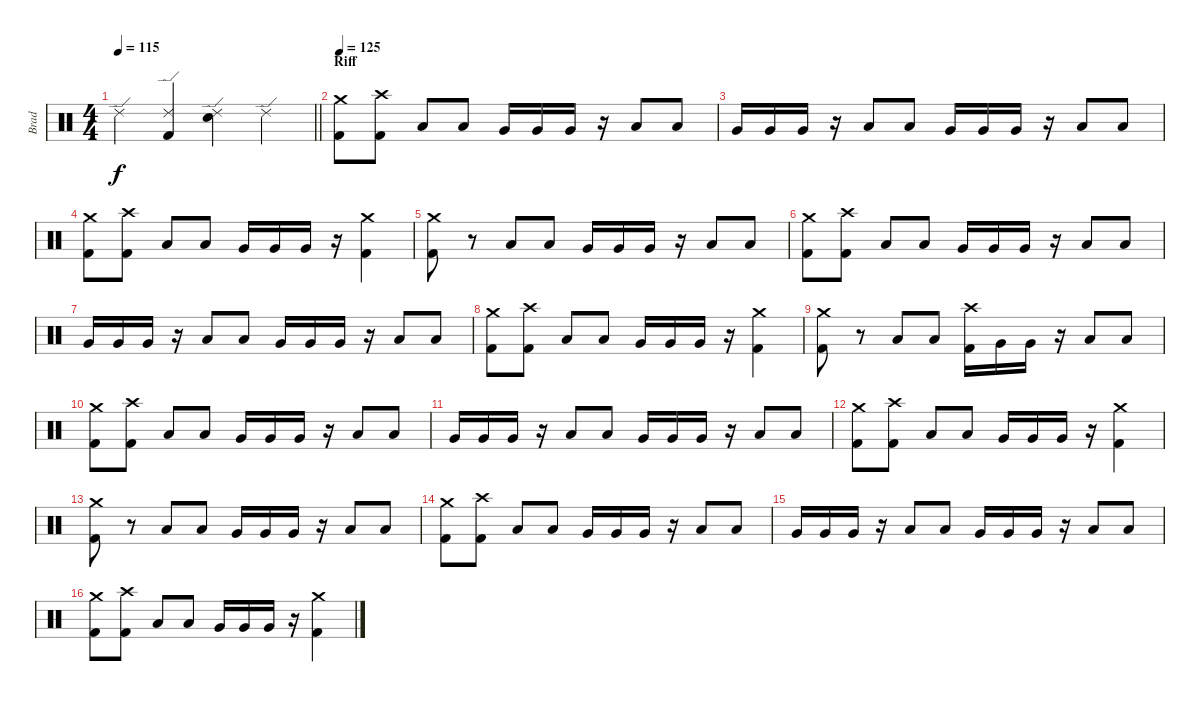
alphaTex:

\track ("Brad" "Brad") {instrument percussion}
\staff {score}
\articulation defaults
\ts (4 4)
\tempo 115
\clef neutral
\barLineRight lightlight
\ks c "Ride (edge) 2".4{dy f}
("Ride (edge) 2" "Kick (hit) 2").4 ("Ride (edge) 2" "Electric Snare (hit)").4 "Ride (edge) 2".4 |
\section ("" "Riff")
\tempo 125
("Crash medium (hit)" "Kick (hit) 2").8 ("Crash high (hit)" "Kick (hit) 2").8 "Low Tom (hit)".8 "Low Tom (hit)".8 "Very Low Tom (hit)".16 "Very Low Tom (hit)".16 "Very Low Tom (hit)".16 r.16 "Low Tom (hit)".8 "Low Tom (hit)".8 |
"Very Low Tom (hit)".16 "Very Low Tom (hit)".16 "Very Low Tom (hit)".16 r.16 "Low Tom (hit)".8 "Low Tom (hit)".8 "Very Low Tom (hit)".16 "Very Low Tom (hit)".16 "Very Low Tom (hit)".16 r.16 "Low Tom (hit)".8 "Low Tom (hit)".8 |
("Crash medium (hit)" "Kick (hit) 2").8 ("Crash high (hit)" "Kick (hit) 2").8 "Low Tom (hit)".8 "Low Tom (hit)".8 "Very Low Tom (hit)".16 "Very Low Tom (hit)".16 "Very Low Tom (hit)".16 r.16 ("Crash medium (hit)" "Kick (hit) 2").4 |
("Crash medium (hit)" "Kick (hit) 2").8 r.8 "Low Tom (hit)".8 "Low Tom (hit)".8 "Very Low Tom (hit)".16 "Very Low Tom (hit)".16 "Very Low Tom (hit)".16 r.16 "Low Tom (hit)".8 "Low Tom (hit)".8 |
("Crash medium (hit)" "Kick (hit) 2").8 ("Crash high (hit)" "Kick (hit) 2").8 "Low Tom (hit)".8 "Low Tom (hit)".8 "Very Low Tom (hit)".16 "Very Low Tom (hit)".16 "Very Low Tom (hit)".16 r.16 "Low Tom (hit)".8 "Low Tom (hit)".8 |
"Very Low Tom (hit)".16 "Very Low Tom (hit)".16 "Very Low Tom (hit)".16 r.16 "Low Tom (hit)".8 "Low Tom (hit)".8 "Very Low Tom (hit)".16 "Very Low Tom (hit)".16 "Very Low Tom (hit)".16 r.16 "Low Tom (hit)".8 "Low Tom (hit)".8 |
("Crash medium (hit)" "Kick (hit) 2").8 ("Crash high (hit)" "Kick (hit) 2").8 "Low Tom (hit)".8 "Low Tom (hit)".8 "Very Low Tom (hit)".16 "Very Low Tom (hit)".16 "Very Low Tom (hit)".16 r.16 ("Crash medium (hit)" "Kick (hit) 2").4 |
("Crash medium (hit)" "Kick (hit) 2").8 r.8 "Low Tom (hit)".8 "Low Tom (hit)".8 ("Crash high (hit)" "Kick (hit) 2").16 "Very Low Tom (hit)".16 "Very Low Tom (hit)".16 r.16 "Low Tom (hit)".8 "Low Tom (hit)".8 |
("Crash medium (hit)" "Kick (hit) 2").8 ("Crash high (hit)" "Kick (hit) 2").8 "Low Tom (hit)".8 "Low Tom (hit)".8 "Very Low Tom (hit)".16 "Very Low Tom (hit)".16 "Very Low Tom (hit)".16 r.16 "Low Tom (hit)".8 "Low Tom (hit)".8 |
"Very Low Tom (hit)".16 "Very Low Tom (hit)".16 "Very Low Tom (hit)".16 r.16 "Low Tom (hit)".8 "Low Tom (hit)".8 "Very Low Tom (hit)".16 "Very Low Tom (hit)".16 "Very Low Tom (hit)".16 r.16 "Low Tom (hit)".8 "Low Tom (hit)".8 |
("Crash medium (hit)" "Kick (hit) 2").8 ("Crash high (hit)" "Kick (hit) 2").8 "Low Tom (hit)".8 "Low Tom (hit)".8 "Very Low Tom (hit)".16 "Very Low Tom (hit)".16 "Very Low Tom (hit)".16 r.16 ("Crash medium (hit)" "Kick (hit) 2").4 |
("Crash medium (hit)" "Kick (hit) 2").8 r.8 "Low Tom (hit)".8 "Low Tom (hit)".8 "Very Low Tom (hit)".16 "Very Low Tom (hit)".16 "Very Low Tom (hit)".16 r.16 "Low Tom (hit)".8 "Low Tom (hit)".8 |
("Crash medium (hit)" "Kick (hit) 2").8 ("Crash high (hit)" "Kick (hit) 2").8 "Low Tom (hit)".8 "Low Tom (hit)".8 "Very Low Tom (hit)".16 "Very Low Tom (hit)".16 "Very Low Tom (hit)".16 r.16 "Low Tom (hit)".8 "Low Tom (hit)".8 |
"Very Low Tom (hit)".16 "Very Low Tom (hit)".16 "Very Low Tom (hit)".16 r.16 "Low Tom (hit)".8 "Low Tom (hit)".8 "Very Low Tom (hit)".16 "Very Low Tom (hit)".16 "Very Low Tom (hit)".16 r.16 "Low Tom (hit)".8 "Low Tom (hit)".8 |
("Crash medium (hit)" "Kick (hit) 2").8 ("Crash high (hit)" "Kick (hit) 2").8 "Low Tom (hit)".8 "Low Tom (hit)".8 "Very Low Tom (hit)".16 "Very Low Tom (hit)".16 "Very Low Tom (hit)".16 r.16 ("Crash medium (hit)" "Kick (hit) 2").4
